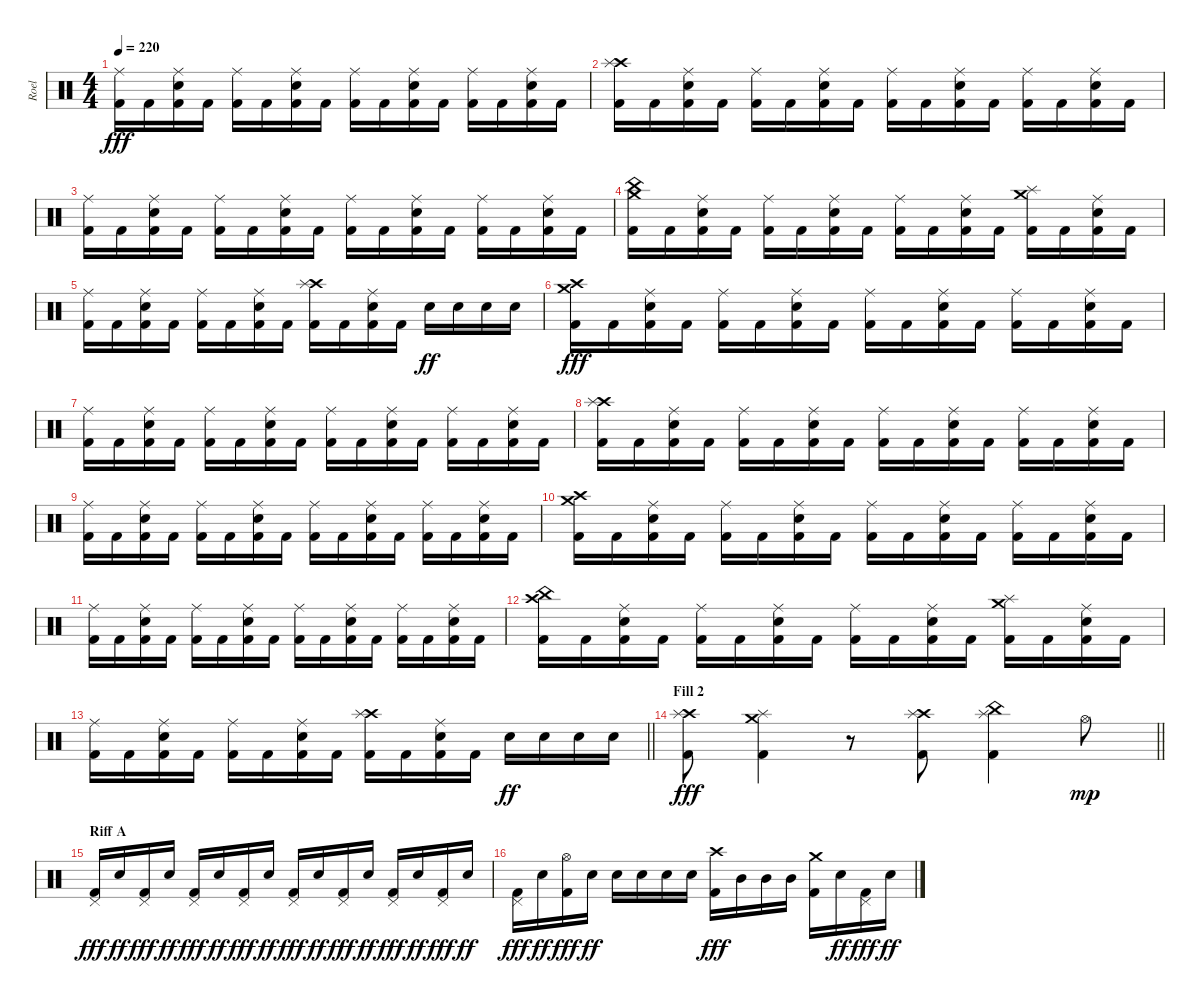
\track ("Roel" "Roel") {instrument percussion}
\staff {score}
\articulation defaults
\ts (4 4)
\tempo 220
\clef neutral
\ks c
("Ride (middle)" "Kick (hit) 2").16{dy fff} "Kick (hit) 2".16 ("Ride (middle)" "Snare (hit) 2" "Kick (hit) 2").16 "Kick (hit) 2".16 ("Ride (middle)" "Kick (hit) 2").16 "Kick (hit) 2".16 ("Ride (middle)" "Snare (hit) 2" "Kick (hit) 2").16 "Kick (hit) 2".16 ("Ride (middle)" "Kick (hit) 2").16 "Kick (hit) 2".16 ("Ride (middle)" "Snare (hit) 2" "Kick (hit) 2").16 "Kick (hit) 2".16 ("Ride (middle)" "Kick (hit) 2").16 "Kick (hit) 2".16 ("Ride (middle)" "Snare (hit) 2" "Kick (hit) 2").16 "Kick (hit) 2".16 |
("Crash high (hit)" "Splash (hit)" "Kick (hit) 2").16 "Kick (hit) 2".16 ("Ride (middle)" "Snare (hit) 2" "Kick (hit) 2").16 "Kick (hit) 2".16 ("Ride (middle)" "Kick (hit) 2").16 "Kick (hit) 2".16 ("Ride (middle)" "Snare (hit) 2" "Kick (hit) 2").16 "Kick (hit) 2".16 ("Ride (middle)" "Kick (hit) 2").16 "Kick (hit) 2".16 ("Ride (middle)" "Snare (hit) 2" "Kick (hit) 2").16 "Kick (hit) 2".16 ("Ride (middle)" "Kick (hit) 2").16 "Kick (hit) 2".16 ("Ride (middle)" "Snare (hit) 2" "Kick (hit) 2").16 "Kick (hit) 2".16 |
("Ride (middle)" "Kick (hit) 2").16 "Kick (hit) 2".16 ("Ride (middle)" "Snare (hit) 2" "Kick (hit) 2").16 "Kick (hit) 2".16 ("Ride (middle)" "Kick (hit) 2").16 "Kick (hit) 2".16 ("Ride (middle)" "Snare (hit) 2" "Kick (hit) 2").16 "Kick (hit) 2".16 ("Ride (middle)" "Kick (hit) 2").16 "Kick (hit) 2".16 ("Ride (middle)" "Snare (hit) 2" "Kick (hit) 2").16 "Kick (hit) 2".16 ("Ride (middle)" "Kick (hit) 2").16 "Kick (hit) 2".16 ("Ride (middle)" "Snare (hit) 2" "Kick (hit) 2").16 "Kick (hit) 2".16 |
("Crash medium (hit)" "China (hit)" "Kick (hit) 2").16 "Kick (hit) 2".16 ("Ride (middle)" "Snare (hit) 2" "Kick (hit) 2").16 "Kick (hit) 2".16 ("Ride (middle)" "Kick (hit) 2").16 "Kick (hit) 2".16 ("Ride (middle)" "Snare (hit) 2" "Kick (hit) 2").16 "Kick (hit) 2".16 ("Ride (middle)" "Kick (hit) 2").16 "Kick (hit) 2".16 ("Ride (middle)" "Snare (hit) 2" "Kick (hit) 2").16 "Kick (hit) 2".16 ("Crash medium (hit)" "Splash (hit)" "Kick (hit) 2").16 "Kick (hit) 2".16 ("Ride (middle)" "Snare (hit) 2" "Kick (hit) 2").16 "Kick (hit) 2".16 |
("Ride (middle)" "Kick (hit) 2").16 "Kick (hit) 2".16 ("Ride (middle)" "Snare (hit) 2" "Kick (hit) 2").16 "Kick (hit) 2".16 ("Ride (middle)" "Kick (hit) 2").16 "Kick (hit) 2".16 ("Ride (middle)" "Snare (hit) 2" "Kick (hit) 2").16 "Kick (hit) 2".16 ("Crash high (hit)" "Splash (hit)" "Kick (hit) 2").16 "Kick (hit) 2".16 ("Ride (middle)" "Snare (hit) 2" "Kick (hit) 2").16 "Kick (hit) 2".16 "Snare (hit) 2".16{dy ff} "Snare (hit) 2".16 "Snare (hit) 2".16 "Snare (hit) 2".16 |
("Crash high (hit)" "Crash medium (hit)" "Kick (hit) 2").16{dy fff} "Kick (hit) 2".16 ("Ride (middle)" "Snare (hit) 2" "Kick (hit) 2").16 "Kick (hit) 2".16 ("Ride (middle)" "Kick (hit) 2").16 "Kick (hit) 2".16 ("Ride (middle)" "Snare (hit) 2" "Kick (hit) 2").16 "Kick (hit) 2".16 ("Ride (middle)" "Kick (hit) 2").16 "Kick (hit) 2".16 ("Ride (middle)" "Snare (hit) 2" "Kick (hit) 2").16 "Kick (hit) 2".16 ("Ride (middle)" "Kick (hit) 2").16 "Kick (hit) 2".16 ("Ride (middle)" "Snare (hit) 2" "Kick (hit) 2").16 "Kick (hit) 2".16 |
("Ride (middle)" "Kick (hit) 2").16 "Kick (hit) 2".16 ("Ride (middle)" "Snare (hit) 2" "Kick (hit) 2").16 "Kick (hit) 2".16 ("Ride (middle)" "Kick (hit) 2").16 "Kick (hit) 2".16 ("Ride (middle)" "Snare (hit) 2" "Kick (hit) 2").16 "Kick (hit) 2".16 ("Ride (middle)" "Kick (hit) 2").16 "Kick (hit) 2".16 ("Ride (middle)" "Snare (hit) 2" "Kick (hit) 2").16 "Kick (hit) 2".16 ("Ride (middle)" "Kick (hit) 2").16 "Kick (hit) 2".16 ("Ride (middle)" "Snare (hit) 2" "Kick (hit) 2").16 "Kick (hit) 2".16 |
("Crash high (hit)" "Splash (hit)" "Kick (hit) 2").16 "Kick (hit) 2".16 ("Ride (middle)" "Snare (hit) 2" "Kick (hit) 2").16 "Kick (hit) 2".16 ("Ride (middle)" "Kick (hit) 2").16 "Kick (hit) 2".16 ("Ride (middle)" "Snare (hit) 2" "Kick (hit) 2").16 "Kick (hit) 2".16 ("Ride (middle)" "Kick (hit) 2").16 "Kick (hit) 2".16 ("Ride (middle)" "Snare (hit) 2" "Kick (hit) 2").16 "Kick (hit) 2".16 ("Ride (middle)" "Kick (hit) 2").16 "Kick (hit) 2".16 ("Ride (middle)" "Snare (hit) 2" "Kick (hit) 2").16 "Kick (hit) 2".16 |
("Ride (middle)" "Kick (hit) 2").16 "Kick (hit) 2".16 ("Ride (middle)" "Snare (hit) 2" "Kick (hit) 2").16 "Kick (hit) 2".16 ("Ride (middle)" "Kick (hit) 2").16 "Kick (hit) 2".16 ("Ride (middle)" "Snare (hit) 2" "Kick (hit) 2").16 "Kick (hit) 2".16 ("Ride (middle)" "Kick (hit) 2").16 "Kick (hit) 2".16 ("Ride (middle)" "Snare (hit) 2" "Kick (hit) 2").16 "Kick (hit) 2".16 ("Ride (middle)" "Kick (hit) 2").16 "Kick (hit) 2".16 ("Ride (middle)" "Snare (hit) 2" "Kick (hit) 2").16 "Kick (hit) 2".16 |
("Crash medium (hit)" "Crash high (hit)" "Kick (hit) 2").16 "Kick (hit) 2".16 ("Ride (middle)" "Snare (hit) 2" "Kick (hit) 2").16 "Kick (hit) 2".16 ("Ride (middle)" "Kick (hit) 2").16 "Kick (hit) 2".16 ("Ride (middle)" "Snare (hit) 2" "Kick (hit) 2").16 "Kick (hit) 2".16 ("Ride (middle)" "Kick (hit) 2").16 "Kick (hit) 2".16 ("Ride (middle)" "Snare (hit) 2" "Kick (hit) 2").16 "Kick (hit) 2".16 ("Ride (middle)" "Kick (hit) 2").16 "Kick (hit) 2".16 ("Ride (middle)" "Snare (hit) 2" "Kick (hit) 2").16 "Kick (hit) 2".16 |
("Ride (middle)" "Kick (hit) 2").16 "Kick (hit) 2".16 ("Ride (middle)" "Snare (hit) 2" "Kick (hit) 2").16 "Kick (hit) 2".16 ("Ride (middle)" "Kick (hit) 2").16 "Kick (hit) 2".16 ("Ride (middle)" "Snare (hit) 2" "Kick (hit) 2").16 "Kick (hit) 2".16 ("Ride (middle)" "Kick (hit) 2").16 "Kick (hit) 2".16 ("Ride (middle)" "Snare (hit) 2" "Kick (hit) 2").16 "Kick (hit) 2".16 ("Ride (middle)" "Kick (hit) 2").16 "Kick (hit) 2".16 ("Ride (middle)" "Snare (hit) 2" "Kick (hit) 2").16 "Kick (hit) 2".16 |
("Crash high (hit)" "China (hit)" "Kick (hit) 2").16 "Kick (hit) 2".16 ("Ride (middle)" "Snare (hit) 2" "Kick (hit) 2").16 "Kick (hit) 2".16 ("Ride (middle)" "Kick (hit) 2").16 "Kick (hit) 2".16 ("Ride (middle)" "Snare (hit) 2" "Kick (hit) 2").16 "Kick (hit) 2".16 ("Ride (middle)" "Kick (hit) 2").16 "Kick (hit) 2".16 ("Ride (middle)" "Snare (hit) 2" "Kick (hit) 2").16 "Kick (hit) 2".16 ("Crash medium (hit)" "Splash (hit)" "Kick (hit) 2").16 "Kick (hit) 2".16 ("Ride (middle)" "Snare (hit) 2" "Kick (hit) 2").16 "Kick (hit) 2".16 |
\barLineRight lightlight
("Ride (middle)" "Kick (hit) 2").16 "Kick (hit) 2".16 ("Ride (middle)" "Snare (hit) 2" "Kick (hit) 2").16 "Kick (hit) 2".16 ("Ride (middle)" "Kick (hit) 2").16 "Kick (hit) 2".16 ("Ride (middle)" "Snare (hit) 2" "Kick (hit) 2").16 "Kick (hit) 2".16 ("Crash high (hit)" "Splash (hit)" "Kick (hit) 2").16 "Kick (hit) 2".16 ("Ride (middle)" "Snare (hit) 2" "Kick (hit) 2").16 "Kick (hit) 2".16 "Snare (hit) 2".16{dy ff} "Snare (hit) 2".16 "Snare (hit) 2".16 "Snare (hit) 2".16 |
\section ("" "Fill 2")
\barLineRight lightlight
("Crash high (hit)" "Splash (hit)" "Kick (hit) 2").8{dy fff} ("Crash medium (hit)" "Splash (hit)" "Kick (hit) 2").4 r.8 ("Crash high (hit)" "Splash (hit)" "Kick (hit) 2").8 ("China (hit)" "Splash (hit)" "Kick (hit) 2").4 "Hi-Hat (open)".8{dy mp} |
\section ("" "Riff A")
("Pedal Hi-Hat (hit)" "Kick (hit) 2").16{dy fff} "Snare (hit) 2".16{dy ff} ("Pedal Hi-Hat (hit)" "Kick (hit) 2").16{dy fff} "Snare (hit) 2".16{dy ff} ("Pedal Hi-Hat (hit)" "Kick (hit) 2").16{dy fff} "Snare (hit) 2".16{dy ff} ("Pedal Hi-Hat (hit)" "Kick (hit) 2").16{dy fff} "Snare (hit) 2".16{dy ff} ("Pedal Hi-Hat (hit)" "Kick (hit) 2").16{dy fff} "Snare (hit) 2".16{dy ff} ("Pedal Hi-Hat (hit)" "Kick (hit) 2").16{dy fff} "Snare (hit) 2".16{dy ff} ("Pedal Hi-Hat (hit)" "Kick (hit) 2").16{dy fff} "Snare (hit) 2".16{dy ff} ("Pedal Hi-Hat (hit)" "Kick (hit) 2").16{dy fff} "Snare (hit) 2".16{dy ff} |
("Pedal Hi-Hat (hit)" "Kick (hit) 2").16{dy fff} "Snare (hit) 2".16{dy ff} ("Hi-Hat (open)" "Kick (hit) 2").16{dy fff} "Snare (hit) 2".16{dy ff} "Snare (hit) 2".16 "Snare (hit) 2".16 "Snare (hit) 2".16 "Snare (hit) 2".16 ("Crash high (hit)" "Kick (hit) 2").16{dy fff} "Mid Tom (hit)".16 "Mid Tom (hit)".16 "Mid Tom (hit)".16 ("Crash medium (hit)" "Kick (hit) 2").16 "Snare (hit) 2".16{dy ff} ("Pedal Hi-Hat (hit)" "Kick (hit) 2").16{dy fff} "Snare (hit) 2".16{dy ff}
